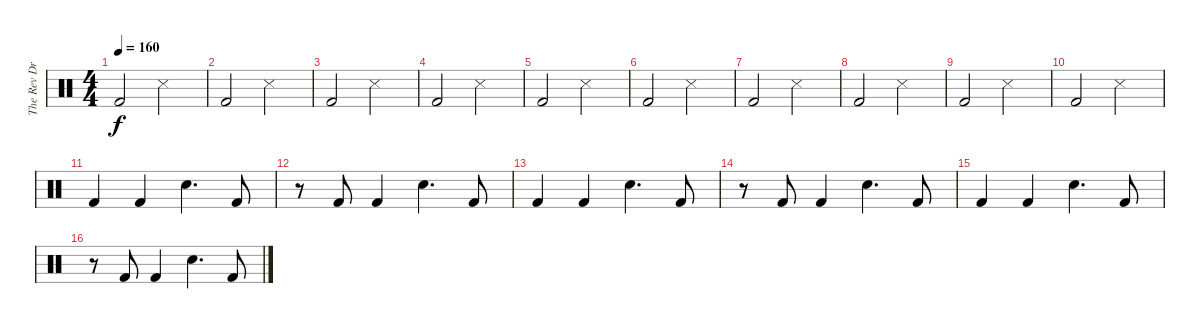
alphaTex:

\track ("The Rev Drum" "The Rev Dr") {instrument percussion}
\staff {score}
\articulation defaults
\ts (4 4)
\tempo 160
\clef neutral
\ks c "Kick (hit) 2".2{dy f} "Metronome (hit)".2
|
"Kick (hit) 2".2 "Metronome (hit)".2 |
"Kick (hit) 2".2 "Metronome (hit)".2 |
"Kick (hit) 2".2 "Metronome (hit)".2 |
"Kick (hit) 2".2 "Metronome (hit)".2 |
"Kick (hit) 2".2 "Metronome (hit)".2 |
"Kick (hit) 2".2 "Metronome (hit)".2 |
"Kick (hit) 2".2 "Metronome (hit)".2 |
"Kick (hit) 2".2 "Metronome (hit)".2 |
"Kick (hit) 2".2 "Metronome (hit)".2 |
"Kick (hit) 2".4 "Kick (hit) 2".4 "Electric Snare (hit)".4{d} "Kick (hit) 2".8 |
r.8 "Kick (hit) 2".8 "Kick (hit) 2".4 "Electric Snare (hit)".4{d} "Kick (hit) 2".8 |
"Kick (hit) 2".4 "Kick (hit) 2".4 "Electric Snare (hit)".4{d} "Kick (hit) 2".8 |
r.8 "Kick (hit) 2".8 "Kick (hit) 2".4 "Electric Snare (hit)".4{d} "Kick (hit) 2".8 |
"Kick (hit) 2".4 "Kick (hit) 2".4 "Electric Snare (hit)".4{d} "Kick (hit) 2".8 |
r.8 "Kick (hit) 2".8 "Kick (hit) 2".4 "Electric Snare (hit)".4{d} "Kick (hit) 2".8
